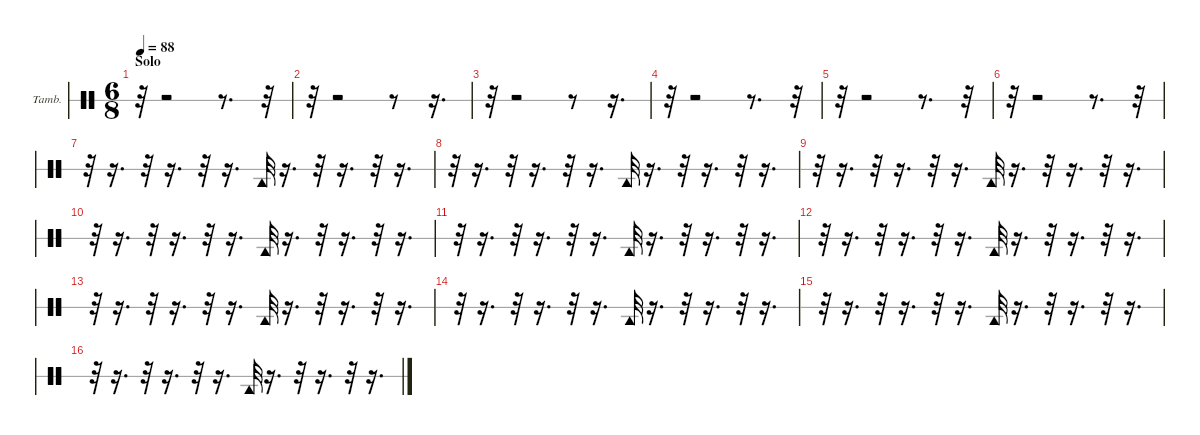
\hideDynamics
\bracketExtendMode nobrackets
\firstSystemTrackNameOrientation horizontal
\otherSystemsTrackNameOrientation horizontal
\track ("Tambourine" "Tamb.") {instrument percussion}
\staff {score 1}
\articulation defaults
\ts (6 8)
\section ("" "Solo")
\tempo 88
\clef neutral
\ks c
r.32{dy ff} r.2 r.8{d} r.32 |
r.32 r.2 r.8 r.16{d} |
r.32 r.2 r.8 r.16{d} |
r.32 r.2 r.8{d} r.32 |
r.32 r.2 r.8{d} r.32 |
r.32 r.2 r.8{d} r.32 |
r.32 r.16{d} r.32 r.16{d} r.32 r.16{d} "Tambourine (hit)".32 r.16{d} r.32 r.16{d} r.32 r.16{d} |
r.32 r.16{d} r.32 r.16{d} r.32 r.16{d} "Tambourine (hit)".32 r.16{d} r.32 r.16{d} r.32 r.16{d} |
r.32 r.16{d} r.32 r.16{d} r.32 r.16{d} "Tambourine (hit)".32 r.16{d} r.32 r.16{d} r.32 r.16{d} |
r.32 r.16{d} r.32 r.16{d} r.32 r.16{d} "Tambourine (hit)".32 r.16{d} r.32 r.16{d} r.32 r.16{d} |
r.32 r.16{d} r.32 r.16{d} r.32 r.16{d} "Tambourine (hit)".32 r.16{d} r.32 r.16{d} r.32 r.16{d} |
r.32 r.16{d} r.32 r.16{d} r.32 r.16{d} "Tambourine (hit)".32 r.16{d} r.32 r.16{d} r.32 r.16{d} |
r.32 r.16{d} r.32 r.16{d} r.32 r.16{d} "Tambourine (hit)".32 r.16{d} r.32 r.16{d} r.32 r.16{d} |
r.32 r.16{d} r.32 r.16{d} r.32 r.16{d} "Tambourine (hit)".32 r.16{d} r.32 r.16{d} r.32 r.16{d} |
r.32 r.16{d} r.32 r.16{d} r.32 r.16{d} "Tambourine (hit)".32 r.16{d} r.32 r.16{d} r.32 r.16{d} |
r.32 r.16{d} r.32 r.16{d} r.32 r.16{d} "Tambourine (hit)".32 r.16{d} r.32 r.16{d} r.32 r.16{d}
